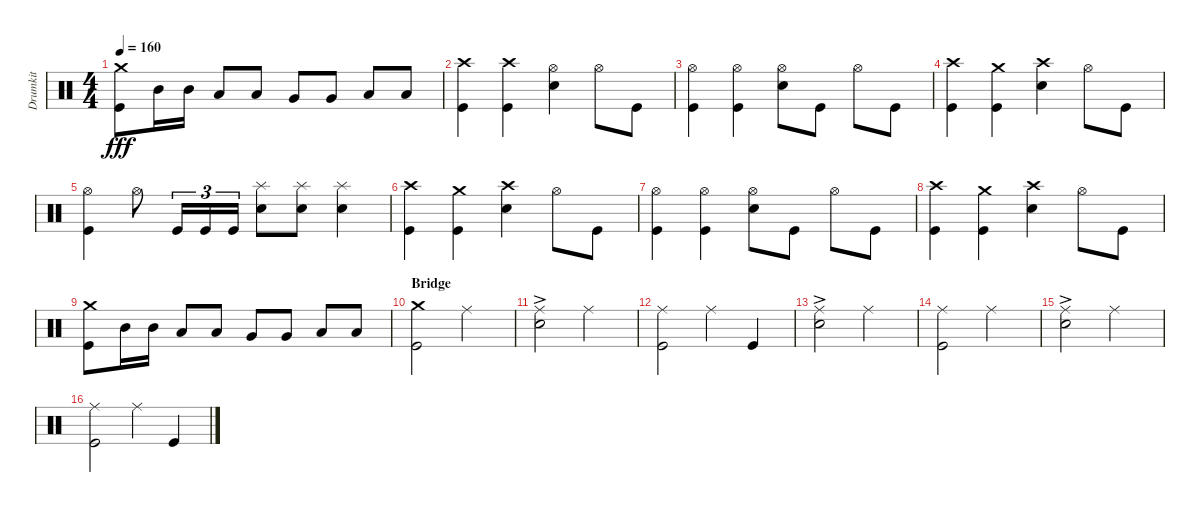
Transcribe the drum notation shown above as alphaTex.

\track ("Drumkit" "Drumkit") {instrument percussion}
\staff {score}
\articulation defaults
\ts (4 4)
\tempo 160
\clef neutral
\ks c
("Kick (hit)" "Crash medium (hit)").8{dy fff} "Mid Tom (hit)".16 "Mid Tom (hit)".16 "Low Tom (hit)".8 "Low Tom (hit)".8 "Very Low Tom (hit)".8 "Very Low Tom (hit)".8 "Low Floor Tom (hit)".8 "Low Floor Tom (hit)".8 |
("Kick (hit)" "Crash high (hit)").4 ("Kick (hit)" "Crash high (hit)").4 ("Hi-Hat (open)" "Snare (hit) 2").4 "Hi-Hat (open)".8 "Kick (hit)".8 |
("Kick (hit)" "Hi-Hat (open)").4 ("Hi-Hat (open)" "Kick (hit)").4 ("Hi-Hat (open)" "Snare (hit) 2").8 "Kick (hit)".8 "Hi-Hat (open)".8 "Kick (hit)".8 |
("Kick (hit)" "Crash high (hit)").4 ("Kick (hit)" "Crash medium (hit)").4 ("Snare (hit) 2" "Crash high (hit)").4 "Hi-Hat (open)".8 "Kick (hit)".8 |
("Kick (hit)" "Hi-Hat (open)").4 "Hi-Hat (open)".8 "Kick (hit)".16{tu (3 2)} "Kick (hit)".16{tu (3 2)} "Kick (hit)".16{tu (3 2)} ("Snare (hit) 2" "Splash (hit)").8 ("Snare (hit) 2" "Splash (hit)").8 ("Snare (hit) 2" "Splash (hit)").4 |
("Kick (hit)" "Crash high (hit)").4 ("Kick (hit)" "Crash medium (hit)").4 ("Snare (hit) 2" "Crash high (hit)").4 "Hi-Hat (open)".8 "Kick (hit)".8 |
("Kick (hit)" "Hi-Hat (open)").4 ("Hi-Hat (open)" "Kick (hit)").4 ("Hi-Hat (open)" "Snare (hit) 2").8 "Kick (hit)".8 "Hi-Hat (open)".8 "Kick (hit)".8 |
("Kick (hit)" "Crash high (hit)").4 ("Kick (hit)" "Crash medium (hit)").4 ("Snare (hit) 2" "Crash high (hit)").4 "Hi-Hat (open)".8 "Kick (hit)".8 |
("Kick (hit)" "Crash medium (hit)").8 "Mid Tom (hit)".16 "Mid Tom (hit)".16 "Low Tom (hit)".8 "Low Tom (hit)".8 "Very Low Tom (hit)".8 "Very Low Tom (hit)".8 "Low Floor Tom (hit)".8 "Low Floor Tom (hit)".8 |
\section ("" "Bridge")
("Kick (hit)" "Crash medium (hit)").2 "Ride (middle)".2 |
("Ride (middle)" "Snare (hit) 2"{ac}).2 "Ride (middle)".2 |
("Kick (hit)" "Ride (middle)").2 "Ride (middle)".4 "Kick (hit)".4 |
("Snare (hit) 2"{ac} "Ride (middle)").2 "Ride (middle)".2 |
("Kick (hit)" "Ride (middle)").2 "Ride (middle)".2 |
("Ride (middle)" "Snare (hit) 2"{ac}).2 "Ride (middle)".2 |
("Kick (hit)" "Ride (middle)").2 "Ride (middle)".4 "Kick (hit)".4
